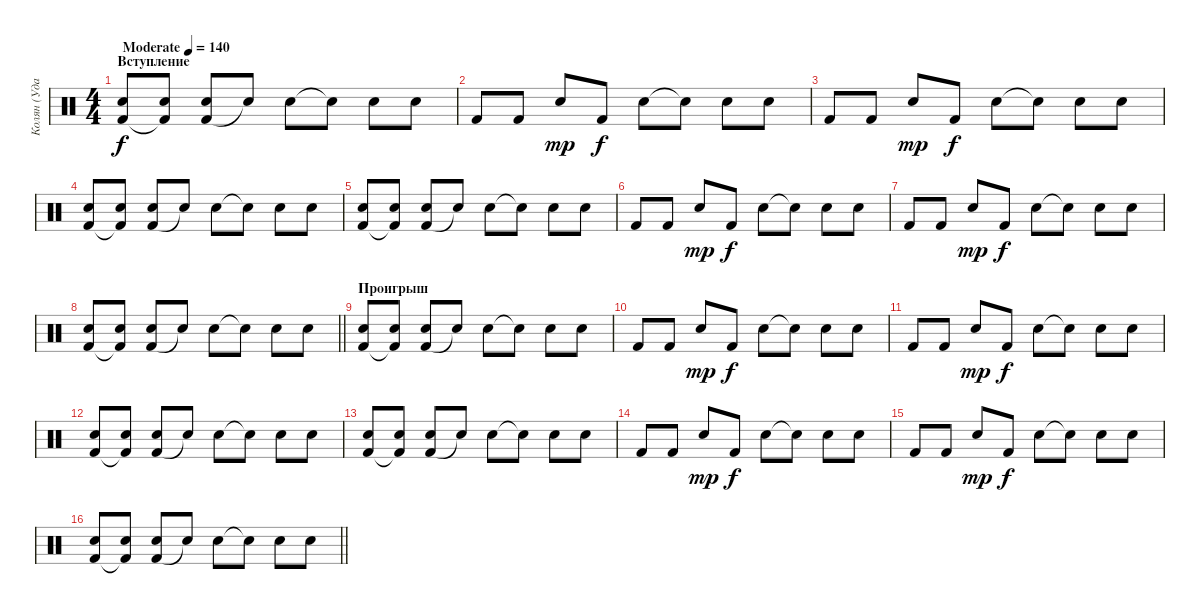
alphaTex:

\track ("Колян (Ударные)" "Колян (Уда") {instrument percussion}
\staff
\articulation defaults
\ts (4 4)
\section ("" "Вступление")
\tempo (140 "Moderate")
\clef neutral
\ks c
("Kick (hit) 2" "Snare (hit) 2").8{dy f} ("Kick (hit) 2"{t} "Snare (hit) 2").8 ("Kick (hit) 2" "Snare (hit) 2").8 "Snare (hit)"{t}.8 "Snare (hit) 2".8 "Snare (hit)"{t}.8 "Snare (hit) 2".8 "Snare (hit) 2".8 |
"Kick (hit) 2".8 "Kick (hit) 2".8 "Snare (hit) 2".8{dy mp} "Kick (hit) 2".8{dy f} "Snare (hit) 2".8 "Snare (hit)"{t}.8 "Snare (hit) 2".8 "Snare (hit) 2".8 |
"Kick (hit) 2".8 "Kick (hit) 2".8 "Snare (hit) 2".8{dy mp} "Kick (hit) 2".8{dy f} "Snare (hit) 2".8 "Snare (hit)"{t}.8 "Snare (hit) 2".8 "Snare (hit) 2".8 |
("Kick (hit) 2" "Snare (hit) 2").8 ("Kick (hit) 2"{t} "Snare (hit) 2").8 ("Kick (hit) 2" "Snare (hit) 2").8 "Snare (hit)"{t}.8 "Snare (hit) 2".8 "Snare (hit)"{t}.8 "Snare (hit) 2".8 "Snare (hit) 2".8 |
("Kick (hit) 2" "Snare (hit) 2").8 ("Kick (hit) 2"{t} "Snare (hit) 2").8 ("Kick (hit) 2" "Snare (hit) 2").8 "Snare (hit)"{t}.8 "Snare (hit) 2".8 "Snare (hit)"{t}.8 "Snare (hit) 2".8 "Snare (hit) 2".8 |
"Kick (hit) 2".8 "Kick (hit) 2".8 "Snare (hit) 2".8{dy mp} "Kick (hit) 2".8{dy f} "Snare (hit) 2".8 "Snare (hit)"{t}.8 "Snare (hit) 2".8 "Snare (hit) 2".8 |
"Kick (hit) 2".8 "Kick (hit) 2".8 "Snare (hit) 2".8{dy mp} "Kick (hit) 2".8{dy f} "Snare (hit) 2".8 "Snare (hit)"{t}.8 "Snare (hit) 2".8 "Snare (hit) 2".8 |
\barLineRight lightlight
("Kick (hit) 2" "Snare (hit) 2").8 ("Kick (hit) 2"{t} "Snare (hit) 2").8 ("Kick (hit) 2" "Snare (hit) 2").8 "Snare (hit)"{t}.8 "Snare (hit) 2".8 "Snare (hit)"{t}.8 "Snare (hit) 2".8 "Snare (hit) 2".8 |
\section ("" "Проигрыш")
("Kick (hit) 2" "Snare (hit) 2").8 ("Kick (hit) 2"{t} "Snare (hit) 2").8 ("Kick (hit) 2" "Snare (hit) 2").8 "Snare (hit)"{t}.8 "Snare (hit) 2".8 "Snare (hit)"{t}.8 "Snare (hit) 2".8 "Snare (hit) 2".8 |
"Kick (hit) 2".8 "Kick (hit) 2".8 "Snare (hit) 2".8{dy mp} "Kick (hit) 2".8{dy f} "Snare (hit) 2".8 "Snare (hit)"{t}.8 "Snare (hit) 2".8 "Snare (hit) 2".8 |
"Kick (hit) 2".8 "Kick (hit) 2".8 "Snare (hit) 2".8{dy mp} "Kick (hit) 2".8{dy f} "Snare (hit) 2".8 "Snare (hit)"{t}.8 "Snare (hit) 2".8 "Snare (hit) 2".8 |
("Kick (hit) 2" "Snare (hit) 2").8 ("Kick (hit) 2"{t} "Snare (hit) 2").8 ("Kick (hit) 2" "Snare (hit) 2").8 "Snare (hit)"{t}.8 "Snare (hit) 2".8 "Snare (hit)"{t}.8 "Snare (hit) 2".8 "Snare (hit) 2".8 |
("Kick (hit) 2" "Snare (hit) 2").8 ("Kick (hit) 2"{t} "Snare (hit) 2").8 ("Kick (hit) 2" "Snare (hit) 2").8 "Snare (hit)"{t}.8 "Snare (hit) 2".8 "Snare (hit)"{t}.8 "Snare (hit) 2".8 "Snare (hit) 2".8 |
"Kick (hit) 2".8 "Kick (hit) 2".8 "Snare (hit) 2".8{dy mp} "Kick (hit) 2".8{dy f} "Snare (hit) 2".8 "Snare (hit)"{t}.8 "Snare (hit) 2".8 "Snare (hit) 2".8 |
"Kick (hit) 2".8 "Kick (hit) 2".8 "Snare (hit) 2".8{dy mp} "Kick (hit) 2".8{dy f} "Snare (hit) 2".8 "Snare (hit)"{t}.8 "Snare (hit) 2".8 "Snare (hit) 2".8 |
\barLineRight lightlight
("Kick (hit) 2" "Snare (hit) 2").8 ("Kick (hit) 2"{t} "Snare (hit) 2").8 ("Kick (hit) 2" "Snare (hit) 2").8 "Snare (hit)"{t}.8 "Snare (hit) 2".8 "Snare (hit)"{t}.8 "Snare (hit) 2".8 "Snare (hit) 2".8
